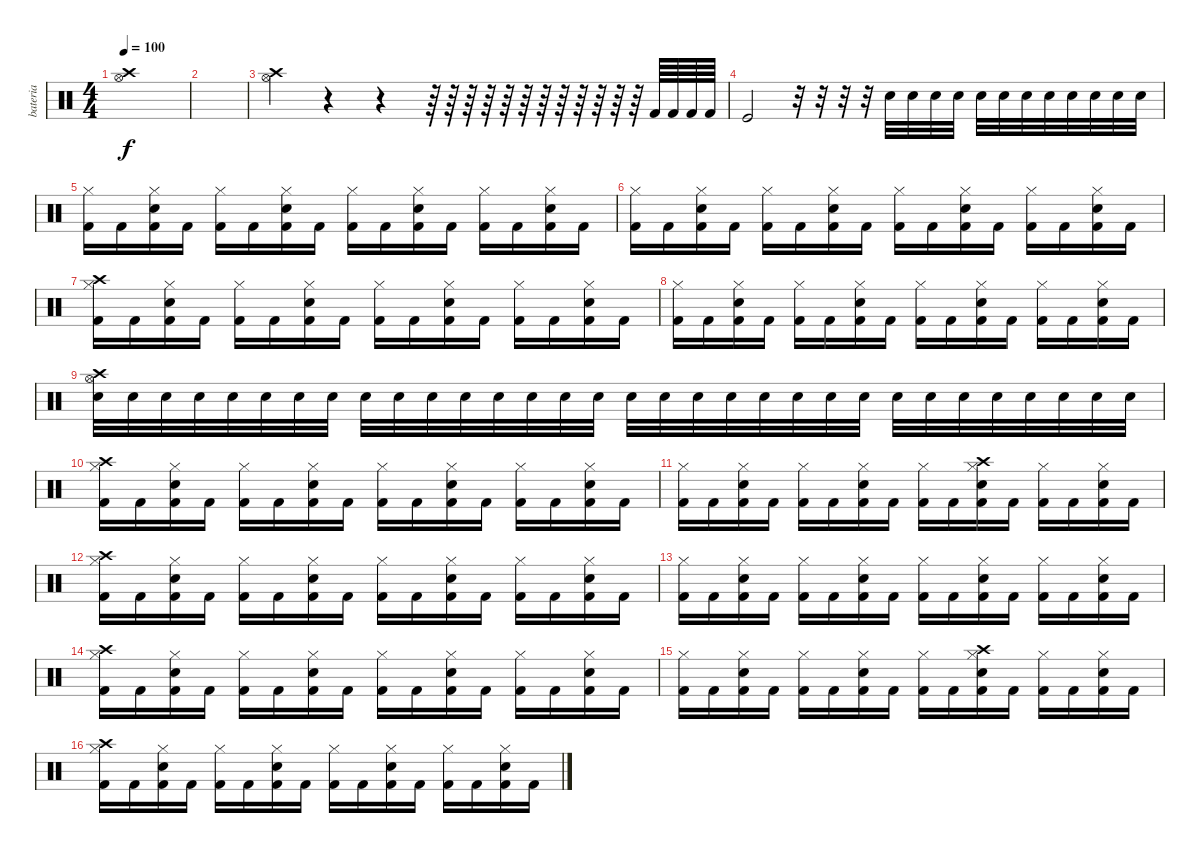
\track ("bateria" "bateria") {instrument percussion}
\staff {score}
\articulation defaults
\ts (4 4)
\tempo 100
\clef neutral
\ks c
("Crash high (hit)" "Hi-Hat (open)").1{dy f} |
|
("Crash high (hit)" "Hi-Hat (open)").4 r.4 r.4 r.64 r.64 r.64 r.64 r.64 r.64 r.64 r.64 r.64 r.64 r.64 r.64 "Kick (hit) 2".64 "Kick (hit) 2".64 "Kick (hit) 2".64 "Kick (hit) 2".64 |
"Kick (hit)".2 r.32 r.32 r.32 r.32 "Electric Snare (hit)".32 "Electric Snare (hit)".32 "Electric Snare (hit)".32 "Electric Snare (hit)".32 "Electric Snare (hit)".32 "Electric Snare (hit)".32 "Electric Snare (hit)".32 "Electric Snare (hit)".32 "Electric Snare (hit)".32 "Electric Snare (hit)".32 "Electric Snare (hit)".32 "Electric Snare (hit)".32 |
("Kick (hit) 2" "Hi-Hat (closed)").16 "Kick (hit) 2".16 ("Kick (hit) 2" "Electric Snare (hit)" "Hi-Hat (closed)").16 "Kick (hit) 2".16 ("Kick (hit) 2" "Hi-Hat (closed)").16 "Kick (hit) 2".16 ("Kick (hit) 2" "Electric Snare (hit)" "Hi-Hat (closed)").16 "Kick (hit) 2".16 ("Kick (hit) 2" "Hi-Hat (closed)").16 "Kick (hit) 2".16 ("Kick (hit) 2" "Electric Snare (hit)" "Hi-Hat (closed)").16 "Kick (hit) 2".16 ("Kick (hit) 2" "Hi-Hat (closed)").16 "Kick (hit) 2".16 ("Kick (hit) 2" "Electric Snare (hit)" "Hi-Hat (closed)").16 "Kick (hit) 2".16 |
("Kick (hit) 2" "Hi-Hat (closed)").16 "Kick (hit) 2".16 ("Kick (hit) 2" "Electric Snare (hit)" "Hi-Hat (closed)").16 "Kick (hit) 2".16 ("Kick (hit) 2" "Hi-Hat (closed)").16 "Kick (hit) 2".16 ("Kick (hit) 2" "Electric Snare (hit)" "Hi-Hat (closed)").16 "Kick (hit) 2".16 ("Kick (hit) 2" "Hi-Hat (closed)").16 "Kick (hit) 2".16 ("Kick (hit) 2" "Electric Snare (hit)" "Hi-Hat (closed)").16 "Kick (hit) 2".16 ("Kick (hit) 2" "Hi-Hat (closed)").16 "Kick (hit) 2".16 ("Kick (hit) 2" "Electric Snare (hit)" "Hi-Hat (closed)").16 "Kick (hit) 2".16 |
("Kick (hit) 2" "Hi-Hat (closed)" "Crash high (hit)").16 "Kick (hit) 2".16 ("Kick (hit) 2" "Electric Snare (hit)" "Hi-Hat (closed)").16 "Kick (hit) 2".16 ("Kick (hit) 2" "Hi-Hat (closed)").16 "Kick (hit) 2".16 ("Kick (hit) 2" "Electric Snare (hit)" "Hi-Hat (closed)").16 "Kick (hit) 2".16 ("Kick (hit) 2" "Hi-Hat (closed)").16 "Kick (hit) 2".16 ("Kick (hit) 2" "Electric Snare (hit)" "Hi-Hat (closed)").16 "Kick (hit) 2".16 ("Kick (hit) 2" "Hi-Hat (closed)").16 "Kick (hit) 2".16 ("Kick (hit) 2" "Electric Snare (hit)" "Hi-Hat (closed)").16 "Kick (hit) 2".16 |
("Kick (hit) 2" "Hi-Hat (closed)").16 "Kick (hit) 2".16 ("Kick (hit) 2" "Electric Snare (hit)" "Hi-Hat (closed)").16 "Kick (hit) 2".16 ("Kick (hit) 2" "Hi-Hat (closed)").16 "Kick (hit) 2".16 ("Kick (hit) 2" "Electric Snare (hit)" "Hi-Hat (closed)").16 "Kick (hit) 2".16 ("Kick (hit) 2" "Hi-Hat (closed)").16 "Kick (hit) 2".16 ("Kick (hit) 2" "Electric Snare (hit)" "Hi-Hat (closed)").16 "Kick (hit) 2".16 ("Kick (hit) 2" "Hi-Hat (closed)").16 "Kick (hit) 2".16 ("Kick (hit) 2" "Electric Snare (hit)" "Hi-Hat (closed)").16 "Kick (hit) 2".16 |
("Electric Snare (hit)" "Crash high (hit)" "Hi-Hat (open)").32 "Electric Snare (hit)".32 "Electric Snare (hit)".32 "Electric Snare (hit)".32 "Electric Snare (hit)".32 "Electric Snare (hit)".32 "Electric Snare (hit)".32 "Electric Snare (hit)".32 "Electric Snare (hit)".32 "Electric Snare (hit)".32 "Electric Snare (hit)".32 "Electric Snare (hit)".32 "Electric Snare (hit)".32 "Electric Snare (hit)".32 "Electric Snare (hit)".32 "Electric Snare (hit)".32 "Electric Snare (hit)".32 "Electric Snare (hit)".32 "Electric Snare (hit)".32 "Electric Snare (hit)".32 "Electric Snare (hit)".32 "Electric Snare (hit)".32 "Electric Snare (hit)".32 "Electric Snare (hit)".32 "Electric Snare (hit)".32 "Electric Snare (hit)".32 "Electric Snare (hit)".32 "Electric Snare (hit)".32 "Electric Snare (hit)".32 "Electric Snare (hit)".32 "Electric Snare (hit)".32 "Electric Snare (hit)".32 |
("Kick (hit) 2" "Hi-Hat (closed)" "Crash high (hit)").16 "Kick (hit) 2".16 ("Kick (hit) 2" "Electric Snare (hit)" "Hi-Hat (closed)").16 "Kick (hit) 2".16 ("Kick (hit) 2" "Hi-Hat (closed)").16 "Kick (hit) 2".16 ("Kick (hit) 2" "Electric Snare (hit)" "Hi-Hat (closed)").16 "Kick (hit) 2".16 ("Kick (hit) 2" "Hi-Hat (closed)").16 "Kick (hit) 2".16 ("Kick (hit) 2" "Electric Snare (hit)" "Hi-Hat (closed)").16 "Kick (hit) 2".16 ("Kick (hit) 2" "Hi-Hat (closed)").16 "Kick (hit) 2".16 ("Kick (hit) 2" "Electric Snare (hit)" "Hi-Hat (closed)").16 "Kick (hit) 2".16 |
("Kick (hit) 2" "Hi-Hat (closed)").16 "Kick (hit) 2".16 ("Kick (hit) 2" "Electric Snare (hit)" "Hi-Hat (closed)").16 "Kick (hit) 2".16 ("Kick (hit) 2" "Hi-Hat (closed)").16 "Kick (hit) 2".16 ("Kick (hit) 2" "Electric Snare (hit)" "Hi-Hat (closed)").16 "Kick (hit) 2".16 ("Kick (hit) 2" "Hi-Hat (closed)").16 "Kick (hit) 2".16 ("Kick (hit) 2" "Electric Snare (hit)" "Hi-Hat (closed)" "Crash high (hit)").16 "Kick (hit) 2".16 ("Kick (hit) 2" "Hi-Hat (closed)").16 "Kick (hit) 2".16 ("Kick (hit) 2" "Electric Snare (hit)" "Hi-Hat (closed)").16 "Kick (hit) 2".16 |
("Kick (hit) 2" "Hi-Hat (closed)" "Crash high (hit)").16 "Kick (hit) 2".16 ("Kick (hit) 2" "Electric Snare (hit)" "Hi-Hat (closed)").16 "Kick (hit) 2".16 ("Kick (hit) 2" "Hi-Hat (closed)").16 "Kick (hit) 2".16 ("Kick (hit) 2" "Electric Snare (hit)" "Hi-Hat (closed)").16 "Kick (hit) 2".16 ("Kick (hit) 2" "Hi-Hat (closed)").16 "Kick (hit) 2".16 ("Kick (hit) 2" "Electric Snare (hit)" "Hi-Hat (closed)").16 "Kick (hit) 2".16 ("Kick (hit) 2" "Hi-Hat (closed)").16 "Kick (hit) 2".16 ("Kick (hit) 2" "Electric Snare (hit)" "Hi-Hat (closed)").16 "Kick (hit) 2".16 |
("Kick (hit) 2" "Hi-Hat (closed)").16 "Kick (hit) 2".16 ("Kick (hit) 2" "Electric Snare (hit)" "Hi-Hat (closed)").16 "Kick (hit) 2".16 ("Kick (hit) 2" "Hi-Hat (closed)").16 "Kick (hit) 2".16 ("Kick (hit) 2" "Electric Snare (hit)" "Hi-Hat (closed)").16 "Kick (hit) 2".16 ("Kick (hit) 2" "Hi-Hat (closed)").16 "Kick (hit) 2".16 ("Kick (hit) 2" "Electric Snare (hit)" "Hi-Hat (closed)").16 "Kick (hit) 2".16 ("Kick (hit) 2" "Hi-Hat (closed)").16 "Kick (hit) 2".16 ("Kick (hit) 2" "Electric Snare (hit)" "Hi-Hat (closed)").16 "Kick (hit) 2".16 |
("Kick (hit) 2" "Hi-Hat (closed)" "Crash high (hit)").16 "Kick (hit) 2".16 ("Kick (hit) 2" "Electric Snare (hit)" "Hi-Hat (closed)").16 "Kick (hit) 2".16 ("Kick (hit) 2" "Hi-Hat (closed)").16 "Kick (hit) 2".16 ("Kick (hit) 2" "Electric Snare (hit)" "Hi-Hat (closed)").16 "Kick (hit) 2".16 ("Kick (hit) 2" "Hi-Hat (closed)").16 "Kick (hit) 2".16 ("Kick (hit) 2" "Electric Snare (hit)" "Hi-Hat (closed)").16 "Kick (hit) 2".16 ("Kick (hit) 2" "Hi-Hat (closed)").16 "Kick (hit) 2".16 ("Kick (hit) 2" "Electric Snare (hit)" "Hi-Hat (closed)").16 "Kick (hit) 2".16 |
("Kick (hit) 2" "Hi-Hat (closed)").16 "Kick (hit) 2".16 ("Kick (hit) 2" "Electric Snare (hit)" "Hi-Hat (closed)").16 "Kick (hit) 2".16 ("Kick (hit) 2" "Hi-Hat (closed)").16 "Kick (hit) 2".16 ("Kick (hit) 2" "Electric Snare (hit)" "Hi-Hat (closed)").16 "Kick (hit) 2".16 ("Kick (hit) 2" "Hi-Hat (closed)").16 "Kick (hit) 2".16 ("Kick (hit) 2" "Electric Snare (hit)" "Hi-Hat (closed)" "Crash high (hit)").16 "Kick (hit) 2".16 ("Kick (hit) 2" "Hi-Hat (closed)").16 "Kick (hit) 2".16 ("Kick (hit) 2" "Electric Snare (hit)" "Hi-Hat (closed)").16 "Kick (hit) 2".16 |
("Kick (hit) 2" "Hi-Hat (closed)" "Crash high (hit)").16 "Kick (hit) 2".16 ("Kick (hit) 2" "Electric Snare (hit)" "Hi-Hat (closed)").16 "Kick (hit) 2".16 ("Kick (hit) 2" "Hi-Hat (closed)").16 "Kick (hit) 2".16 ("Kick (hit) 2" "Electric Snare (hit)" "Hi-Hat (closed)").16 "Kick (hit) 2".16 ("Kick (hit) 2" "Hi-Hat (closed)").16 "Kick (hit) 2".16 ("Kick (hit) 2" "Electric Snare (hit)" "Hi-Hat (closed)").16 "Kick (hit) 2".16 ("Kick (hit) 2" "Hi-Hat (closed)").16 "Kick (hit) 2".16 ("Kick (hit) 2" "Electric Snare (hit)" "Hi-Hat (closed)").16 "Kick (hit) 2".16
